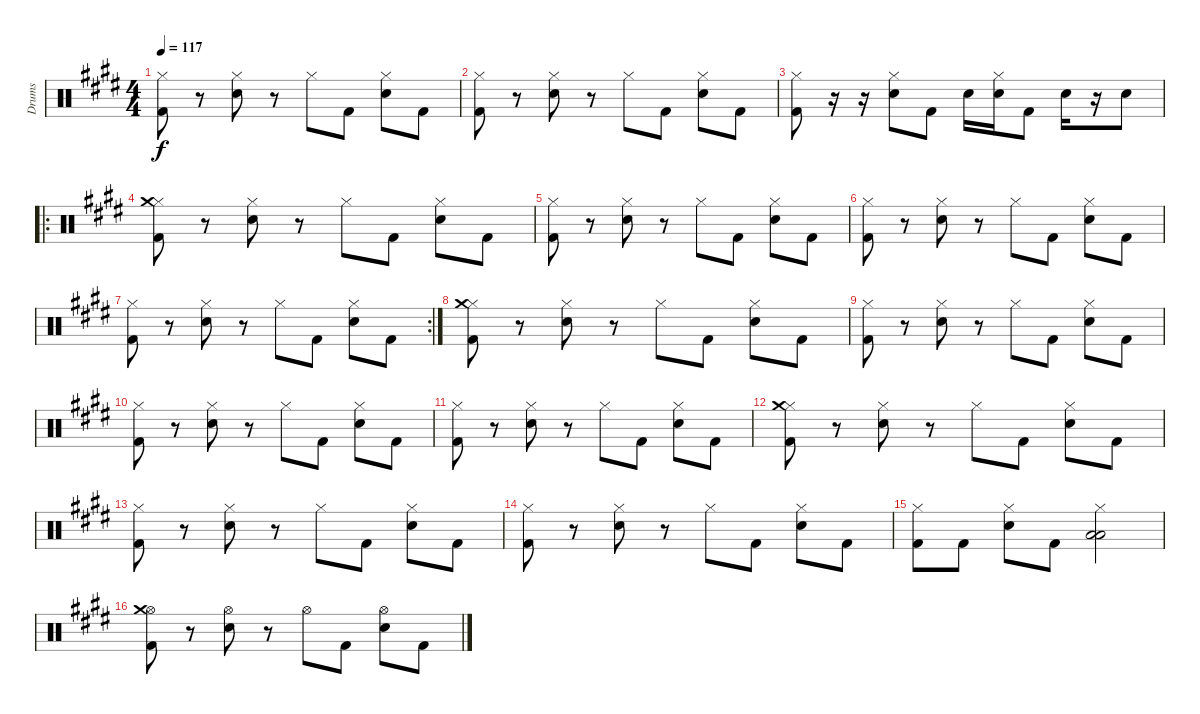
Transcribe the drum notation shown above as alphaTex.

\track ("Drums" "Drums") {instrument percussion}
\staff {score}
\articulation defaults
\ts (4 4)
\tempo 117
\clef neutral
\ks c#minor
("Hi-Hat (closed)" "Kick (hit) 2").8{dy f} r.8 ("Hi-Hat (closed)" "Snare (hit) 2").8 r.8 "Hi-Hat (closed)".8 "Kick (hit) 2".8 ("Hi-Hat (closed)" "Snare (hit) 2").8 "Kick (hit) 2".8 |
("Hi-Hat (closed)" "Kick (hit) 2").8 r.8 ("Hi-Hat (closed)" "Snare (hit) 2").8 r.8 "Hi-Hat (closed)".8 "Kick (hit) 2".8 ("Hi-Hat (closed)" "Snare (hit) 2").8 "Kick (hit) 2".8 |
("Hi-Hat (closed)" "Kick (hit) 2").8 r.16 r.16 ("Hi-Hat (closed)" "Snare (hit) 2").8 "Kick (hit) 2".8 "Snare (hit) 2".16 ("Hi-Hat (closed)" "Snare (hit) 2").16 "Kick (hit) 2".8 "Snare (hit) 2".16 r.16 "Snare (hit) 2".8 |
\ro
("Hi-Hat (closed)" "Kick (hit) 2" "Crash medium (hit)").8 r.8 ("Hi-Hat (closed)" "Snare (hit) 2").8 r.8 "Hi-Hat (closed)".8 "Kick (hit) 2".8 ("Hi-Hat (closed)" "Snare (hit) 2").8 "Kick (hit) 2".8 |
("Hi-Hat (closed)" "Kick (hit) 2").8 r.8 ("Hi-Hat (closed)" "Snare (hit) 2").8 r.8 "Hi-Hat (closed)".8 "Kick (hit) 2".8 ("Hi-Hat (closed)" "Snare (hit) 2").8 "Kick (hit) 2".8 |
("Hi-Hat (closed)" "Kick (hit) 2").8 r.8 ("Hi-Hat (closed)" "Snare (hit) 2").8 r.8 "Hi-Hat (closed)".8 "Kick (hit) 2".8 ("Hi-Hat (closed)" "Snare (hit) 2").8 "Kick (hit) 2".8 |
\rc 2
("Hi-Hat (closed)" "Kick (hit) 2").8 r.8 ("Hi-Hat (closed)" "Snare (hit) 2").8 r.8 "Hi-Hat (closed)".8 "Kick (hit) 2".8 ("Hi-Hat (closed)" "Snare (hit) 2").8 "Kick (hit) 2".8 |
("Hi-Hat (closed)" "Kick (hit) 2" "Crash medium (hit)").8 r.8 ("Hi-Hat (closed)" "Snare (hit) 2").8 r.8 "Hi-Hat (closed)".8 "Kick (hit) 2".8 ("Hi-Hat (closed)" "Snare (hit) 2").8 "Kick (hit) 2".8 |
("Hi-Hat (closed)" "Kick (hit) 2").8 r.8 ("Hi-Hat (closed)" "Snare (hit) 2").8 r.8 "Hi-Hat (closed)".8 "Kick (hit) 2".8 ("Hi-Hat (closed)" "Snare (hit) 2").8 "Kick (hit) 2".8 |
("Hi-Hat (closed)" "Kick (hit) 2").8 r.8 ("Hi-Hat (closed)" "Snare (hit) 2").8 r.8 "Hi-Hat (closed)".8 "Kick (hit) 2".8 ("Hi-Hat (closed)" "Snare (hit) 2").8 "Kick (hit) 2".8 |
("Hi-Hat (closed)" "Kick (hit) 2").8 r.8 ("Hi-Hat (closed)" "Snare (hit) 2").8 r.8 "Hi-Hat (closed)".8 "Kick (hit) 2".8 ("Hi-Hat (closed)" "Snare (hit) 2").8 "Kick (hit) 2".8 |
("Hi-Hat (closed)" "Kick (hit) 2" "Crash medium (hit)").8 r.8 ("Hi-Hat (closed)" "Snare (hit) 2").8 r.8 "Hi-Hat (closed)".8 "Kick (hit) 2".8 ("Hi-Hat (closed)" "Snare (hit) 2").8 "Kick (hit) 2".8 |
("Hi-Hat (closed)" "Kick (hit) 2").8 r.8 ("Hi-Hat (closed)" "Snare (hit) 2").8 r.8 "Hi-Hat (closed)".8 "Kick (hit) 2".8 ("Hi-Hat (closed)" "Snare (hit) 2").8 "Kick (hit) 2".8 |
("Hi-Hat (closed)" "Kick (hit) 2").8 r.8 ("Hi-Hat (closed)" "Snare (hit) 2").8 r.8 "Hi-Hat (closed)".8 "Kick (hit) 2".8 ("Hi-Hat (closed)" "Snare (hit) 2").8 "Kick (hit) 2".8 |
("Hi-Hat (closed)" "Kick (hit) 2").8 "Kick (hit) 2".8 ("Hi-Hat (closed)" "Snare (hit) 2").8 "Kick (hit) 2".8 ("Hi-Hat (closed)" "Low Floor Tom (hit)" "Low Tom (hit)").2 |
("Hi-Hat (open)" "Kick (hit) 2" "Crash medium (hit)").8 r.8 ("Hi-Hat (open)" "Snare (hit) 2").8 r.8 "Hi-Hat (open)".8 "Kick (hit) 2".8 ("Hi-Hat (open)" "Snare (hit) 2").8 "Kick (hit) 2".8
